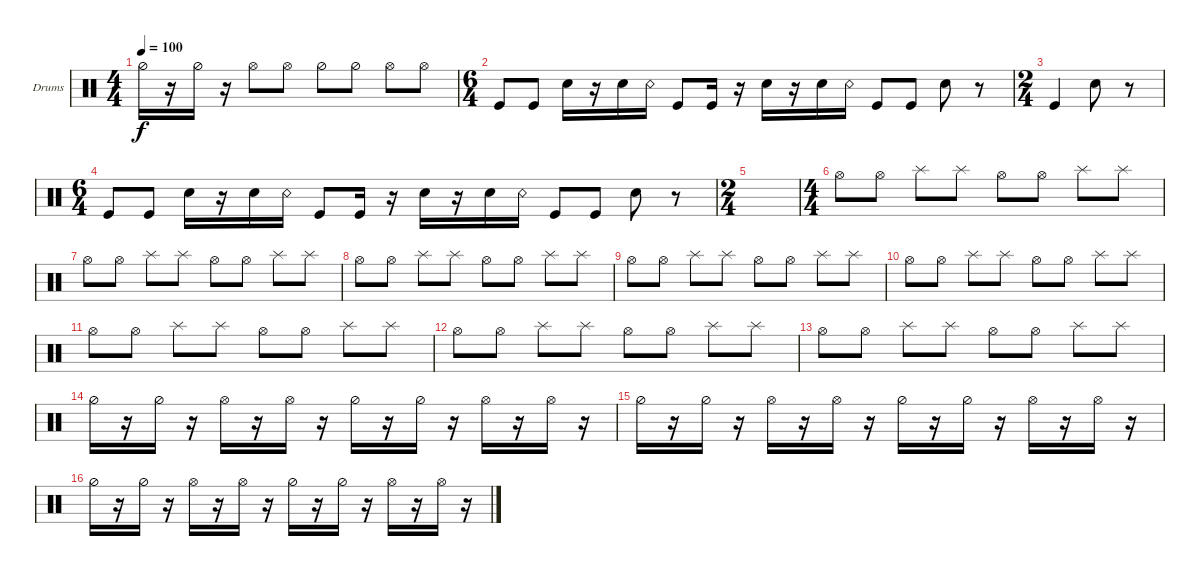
\bracketExtendMode groupsimilarinstruments
\firstSystemTrackNameOrientation horizontal
\otherSystemsTrackNameOrientation horizontal
\track ("Drumkit" "Drums") {instrument percussion}
\staff {score}
\articulation defaults
\ts (4 4)
\tempo 100
\clef neutral
\ks c "Hi-Hat (half)".16{dy f}
r.16 "Hi-Hat (half)".16 r.16 "Hi-Hat (open)".8 "Hi-Hat (open)".8 "Hi-Hat (half)".8 "Hi-Hat (half)".8 "Hi-Hat (open)".8 "Hi-Hat (open)".8 |
\ts (6 4)
"Kick (hit)".8 "Kick (hit)".8 "Snare (hit) 2".16 r.16 "Snare (hit) 2".16 "Snare (rim shot)".16 "Kick (hit)".8 "Kick (hit)".16 r.16 "Snare (hit) 2".16 r.16 "Snare (hit) 2".16 "Snare (rim shot)".16 "Kick (hit)".8 "Kick (hit)".8 "Snare (hit) 2".8 r.8 |
\ts (2 4)
"Kick (hit)".4 "Snare (hit) 2".8 r.8 |
\ts (6 4)
"Kick (hit)".8 "Kick (hit)".8 "Snare (hit) 2".16 r.16 "Snare (hit) 2".16 "Snare (rim shot)".16 "Kick (hit)".8 "Kick (hit)".16 r.16 "Snare (hit) 2".16 r.16 "Snare (hit) 2".16 "Snare (rim shot)".16 "Kick (hit)".8 "Kick (hit)".8 "Snare (hit) 2".8 r.8 |
\ts (2 4)
|
\ts (4 4)
"Hi-Hat (open)".8 "Hi-Hat (open)".8 "Splash (hit)".8 "Splash (hit)".8 "Hi-Hat (open)".8 "Hi-Hat (open)".8 "Splash (hit)".8 "Splash (hit)".8 |
"Hi-Hat (open)".8 "Hi-Hat (open)".8 "Splash (hit)".8 "Splash (hit)".8 "Hi-Hat (open)".8 "Hi-Hat (open)".8 "Splash (hit)".8 "Splash (hit)".8 |
"Hi-Hat (open)".8 "Hi-Hat (open)".8 "Splash (hit)".8 "Splash (hit)".8 "Hi-Hat (open)".8 "Hi-Hat (open)".8 "Splash (hit)".8 "Splash (hit)".8 |
"Hi-Hat (open)".8 "Hi-Hat (open)".8 "Splash (hit)".8 "Splash (hit)".8 "Hi-Hat (open)".8 "Hi-Hat (open)".8 "Splash (hit)".8 "Splash (hit)".8 |
"Hi-Hat (open)".8 "Hi-Hat (open)".8 "Splash (hit)".8 "Splash (hit)".8 "Hi-Hat (open)".8 "Hi-Hat (open)".8 "Splash (hit)".8 "Splash (hit)".8 |
"Hi-Hat (open)".8 "Hi-Hat (open)".8 "Splash (hit)".8 "Splash (hit)".8 "Hi-Hat (open)".8 "Hi-Hat (open)".8 "Splash (hit)".8 "Splash (hit)".8 |
"Hi-Hat (open)".8 "Hi-Hat (open)".8 "Splash (hit)".8 "Splash (hit)".8 "Hi-Hat (open)".8 "Hi-Hat (open)".8 "Splash (hit)".8 "Splash (hit)".8 |
"Hi-Hat (open)".8 "Hi-Hat (open)".8 "Splash (hit)".8 "Splash (hit)".8 "Hi-Hat (open)".8 "Hi-Hat (open)".8 "Splash (hit)".8 "Splash (hit)".8 |
"Hi-Hat (half)".16 r.16 "Hi-Hat (half)".16 r.16 "Hi-Hat (open)".16 r.16 "Hi-Hat (open)".16 r.16 "Hi-Hat (half)".16 r.16 "Hi-Hat (half)".16 r.16 "Hi-Hat (open)".16 r.16 "Hi-Hat (open)".16 r.16 |
"Hi-Hat (half)".16 r.16 "Hi-Hat (half)".16 r.16 "Hi-Hat (open)".16 r.16 "Hi-Hat (open)".16 r.16 "Hi-Hat (half)".16 r.16 "Hi-Hat (half)".16 r.16 "Hi-Hat (open)".16 r.16 "Hi-Hat (open)".16 r.16 |
"Hi-Hat (half)".16 r.16 "Hi-Hat (half)".16 r.16 "Hi-Hat (open)".16 r.16 "Hi-Hat (open)".16 r.16 "Hi-Hat (half)".16 r.16 "Hi-Hat (half)".16 r.16 "Hi-Hat (open)".16 r.16 "Hi-Hat (open)".16 r.16
